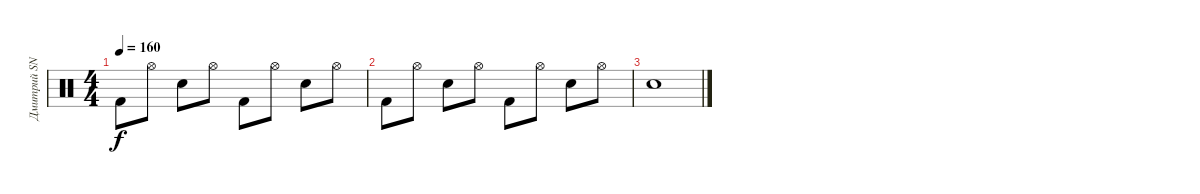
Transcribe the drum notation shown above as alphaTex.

\track ("Дмитрий SNAKE Хакимов" "Дмитрий SN") {instrument percussion}
\staff {score}
\articulation defaults
\ts (4 4)
\tempo 160
\clef neutral
\ks c "Kick (hit) 2".8{dy f} "Hi-Hat (open)".8 "Electric Snare (hit)".8 "Hi-Hat (open)".8 "Kick (hit) 2".8 "Hi-Hat (open)".8 "Electric Snare (hit)".8 "Hi-Hat (open)".8
|
"Kick (hit) 2".8 "Hi-Hat (open)".8 "Electric Snare (hit)".8 "Hi-Hat (open)".8 "Kick (hit) 2".8 "Hi-Hat (open)".8 "Electric Snare (hit)".8 "Hi-Hat (open)".8 |
"Electric Snare (hit)".1
